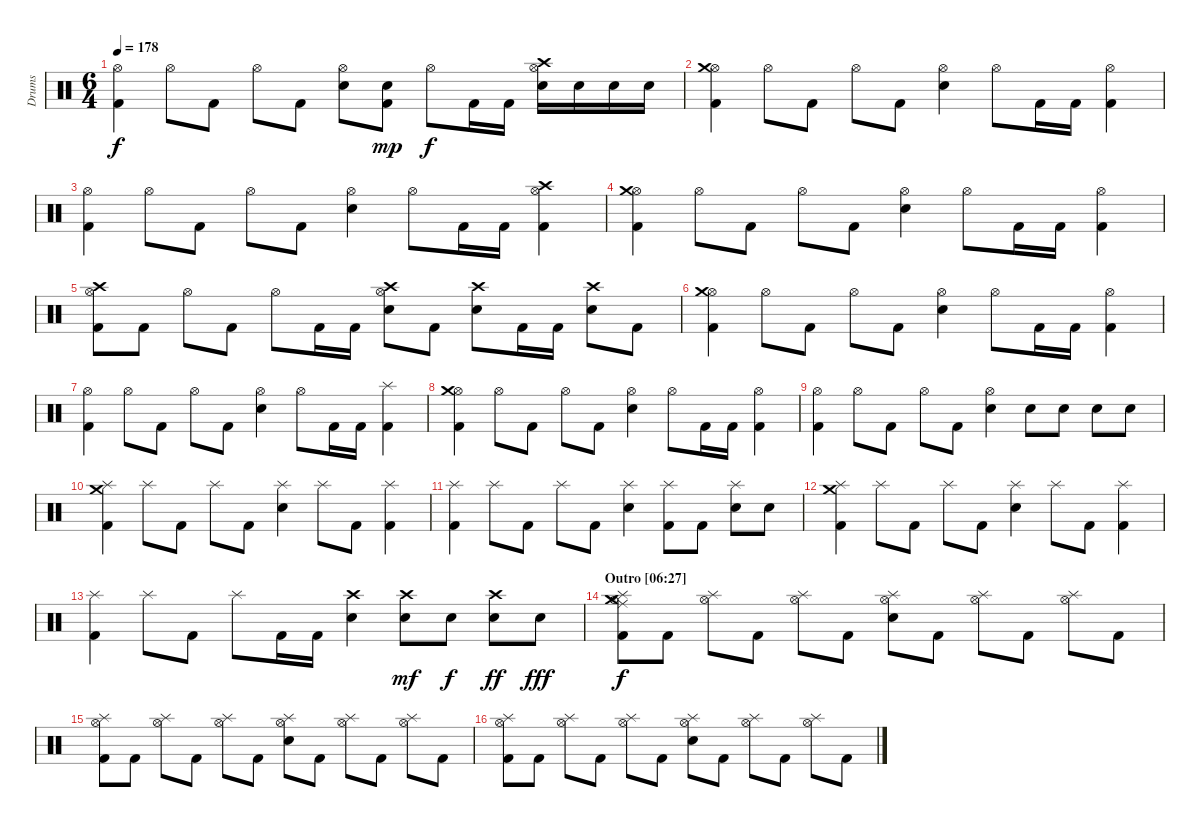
\track ("Drums" "Drums") {instrument percussion}
\staff {score}
\articulation defaults
\ts (6 4)
\tempo 178
\clef neutral
\ks c
("Hi-Hat (open)" "Kick (hit) 2").4{dy f} "Hi-Hat (open)".8 "Kick (hit) 2".8 "Hi-Hat (open)".8 "Kick (hit) 2".8 ("Hi-Hat (open)" "Electric Snare (hit)").8 ("Snare (hit) 2" "Kick (hit) 2").8{dy mp} "Hi-Hat (open)".8{dy f} "Kick (hit) 2".16 "Kick (hit) 2".16 ("Hi-Hat (open)" "Crash high (hit)" "Electric Snare (hit)").16 "Electric Snare (hit)".16 "Electric Snare (hit)".16 "Electric Snare (hit)".16 |
("Hi-Hat (open)" "Crash medium (hit)" "Kick (hit) 2").4 "Hi-Hat (open)".8 "Kick (hit) 2".8 "Hi-Hat (open)".8 "Kick (hit) 2".8 ("Hi-Hat (open)" "Electric Snare (hit)").4 "Hi-Hat (open)".8 "Kick (hit) 2".16 "Kick (hit) 2".16 ("Hi-Hat (open)" "Kick (hit) 2").4 |
("Hi-Hat (open)" "Kick (hit) 2").4 "Hi-Hat (open)".8 "Kick (hit) 2".8 "Hi-Hat (open)".8 "Kick (hit) 2".8 ("Hi-Hat (open)" "Electric Snare (hit)").4 "Hi-Hat (open)".8 "Kick (hit) 2".16 "Kick (hit) 2".16 ("Hi-Hat (open)" "Crash high (hit)" "Kick (hit) 2").4 |
("Hi-Hat (open)" "Crash medium (hit)" "Kick (hit) 2").4 "Hi-Hat (open)".8 "Kick (hit) 2".8 "Hi-Hat (open)".8 "Kick (hit) 2".8 ("Hi-Hat (open)" "Electric Snare (hit)").4 "Hi-Hat (open)".8 "Kick (hit) 2".16 "Kick (hit) 2".16 ("Hi-Hat (open)" "Kick (hit) 2").4 |
("Hi-Hat (open)" "Crash high (hit)" "Kick (hit) 2").8 "Kick (hit) 2".8 "Hi-Hat (open)".8 "Kick (hit) 2".8 "Hi-Hat (open)".8 "Kick (hit) 2".16 "Kick (hit) 2".16 ("Hi-Hat (open)" "Crash high (hit)" "Electric Snare (hit)").8 "Kick (hit) 2".8 ("Crash high (hit)" "Electric Snare (hit)").8 "Kick (hit) 2".16 "Kick (hit) 2".16 ("Crash high (hit)" "Electric Snare (hit)").8 "Kick (hit) 2".8 |
\section ("" "")
("Hi-Hat (open)" "Crash medium (hit)" "Kick (hit) 2").4 "Hi-Hat (open)".8 "Kick (hit) 2".8 "Hi-Hat (open)".8 "Kick (hit) 2".8 ("Hi-Hat (open)" "Electric Snare (hit)").4 "Hi-Hat (open)".8 "Kick (hit) 2".16 "Kick (hit) 2".16 ("Hi-Hat (open)" "Kick (hit) 2").4 |
("Hi-Hat (open)" "Kick (hit) 2").4 "Hi-Hat (open)".8 "Kick (hit) 2".8 "Hi-Hat (open)".8 "Kick (hit) 2".8 ("Hi-Hat (open)" "Electric Snare (hit)").4 "Hi-Hat (open)".8 "Kick (hit) 2".16 "Kick (hit) 2".16 ("Splash (hit)" "Kick (hit) 2").4 |
("Hi-Hat (open)" "Crash medium (hit)" "Kick (hit) 2").4 "Hi-Hat (open)".8 "Kick (hit) 2".8 "Hi-Hat (open)".8 "Kick (hit) 2".8 ("Hi-Hat (open)" "Electric Snare (hit)").4 "Hi-Hat (open)".8 "Kick (hit) 2".16 "Kick (hit) 2".16 ("Hi-Hat (open)" "Kick (hit) 2").4 |
("Hi-Hat (open)" "Kick (hit) 2").4 "Hi-Hat (open)".8 "Kick (hit) 2".8 "Hi-Hat (open)".8 "Kick (hit) 2".8 ("Hi-Hat (open)" "Electric Snare (hit)").4 "Electric Snare (hit)".8 "Electric Snare (hit)".8 "Electric Snare (hit)".8 "Electric Snare (hit)".8 |
("Splash (hit)" "Crash medium (hit)" "Kick (hit) 2").4 "Splash (hit)".8 "Kick (hit) 2".8 "Splash (hit)".8 "Kick (hit) 2".8 ("Splash (hit)" "Electric Snare (hit)").4 "Splash (hit)".8 "Kick (hit) 2".8 ("Splash (hit)" "Kick (hit) 2").4 |
("Splash (hit)" "Kick (hit) 2").4 "Splash (hit)".8 "Kick (hit) 2".8 "Splash (hit)".8 "Kick (hit) 2".8 ("Splash (hit)" "Electric Snare (hit)").4 ("Splash (hit)" "Kick (hit) 2").8 "Kick (hit) 2".8 ("Splash (hit)" "Electric Snare (hit)").8 "Electric Snare (hit)".8 |
("Splash (hit)" "Crash medium (hit)" "Kick (hit) 2").4 "Splash (hit)".8 "Kick (hit) 2".8 "Splash (hit)".8 "Kick (hit) 2".8 ("Splash (hit)" "Electric Snare (hit)").4 "Splash (hit)".8 "Kick (hit) 2".8 ("Splash (hit)" "Kick (hit) 2").4 |
("Splash (hit)" "Kick (hit) 2").4 "Splash (hit)".8 "Kick (hit) 2".8 "Splash (hit)".8 "Kick (hit) 2".16 "Kick (hit) 2".16 ("Crash high (hit)" "Electric Snare (hit)").4 ("Crash high (hit)" "Electric Snare (hit)").8{dy mf} "Electric Snare (hit)".8{dy f} ("Crash high (hit)" "Electric Snare (hit)").8{dy ff} "Electric Snare (hit)".8{dy fff} |
\section ("" "Outro [06:27]")
("Crash medium (hit)" "Hi-Hat (open)" "Ride (middle)" "Splash (hit)" "Kick (hit) 2").8{dy f} "Kick (hit) 2".8 ("Hi-Hat (open)" "Splash (hit)").8 "Kick (hit) 2".8 ("Hi-Hat (open)" "Splash (hit)").8 "Kick (hit) 2".8 ("Hi-Hat (open)" "Splash (hit)" "Electric Snare (hit)").8 "Kick (hit) 2".8 ("Hi-Hat (open)" "Splash (hit)").8 "Kick (hit) 2".8 ("Hi-Hat (open)" "Splash (hit)").8 "Kick (hit) 2".8 |
("Hi-Hat (open)" "Splash (hit)" "Kick (hit) 2").8 "Kick (hit) 2".8 ("Hi-Hat (open)" "Splash (hit)").8 "Kick (hit) 2".8 ("Hi-Hat (open)" "Splash (hit)").8 "Kick (hit) 2".8 ("Hi-Hat (open)" "Splash (hit)" "Electric Snare (hit)").8 "Kick (hit) 2".8 ("Hi-Hat (open)" "Splash (hit)").8 "Kick (hit) 2".8 ("Hi-Hat (open)" "Splash (hit)").8 "Kick (hit) 2".8 |
("Hi-Hat (open)" "Splash (hit)" "Kick (hit) 2").8 "Kick (hit) 2".8 ("Hi-Hat (open)" "Splash (hit)").8 "Kick (hit) 2".8 ("Hi-Hat (open)" "Splash (hit)").8 "Kick (hit) 2".8 ("Hi-Hat (open)" "Splash (hit)" "Electric Snare (hit)").8 "Kick (hit) 2".8 ("Hi-Hat (open)" "Splash (hit)").8 "Kick (hit) 2".8 ("Hi-Hat (open)" "Splash (hit)").8 "Kick (hit) 2".8
